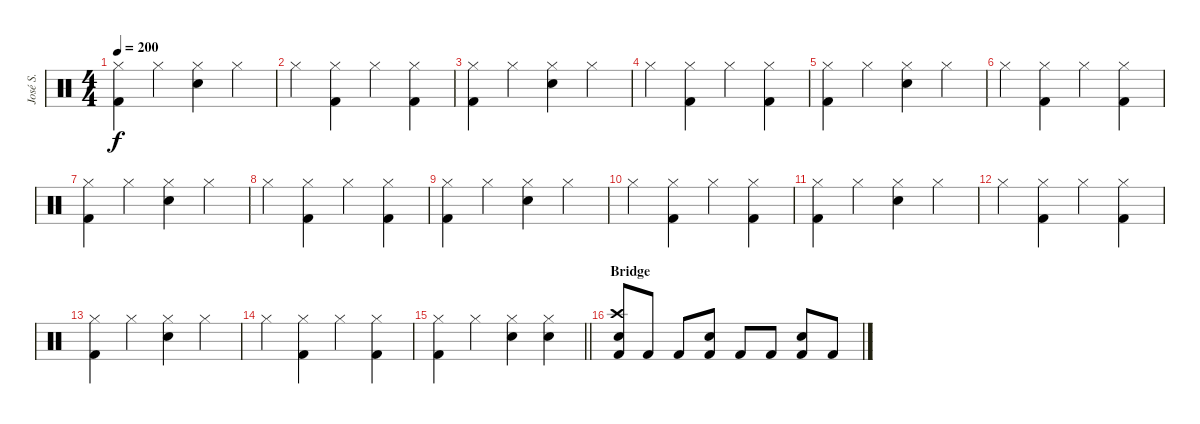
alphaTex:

\track ("José S." "José S.") {instrument percussion}
\staff {score}
\articulation defaults
\ts (4 4)
\tempo 200
\clef neutral
\ks c
("Hi-Hat (closed)" "Kick (hit) 2").4{dy f} "Hi-Hat (closed)".4 ("Hi-Hat (closed)" "Snare (hit) 2").4 "Hi-Hat (closed)".4 |
"Hi-Hat (closed)".4 ("Hi-Hat (closed)" "Kick (hit) 2").4 "Hi-Hat (closed)".4 ("Hi-Hat (closed)" "Kick (hit) 2").4 |
("Hi-Hat (closed)" "Kick (hit) 2").4 "Hi-Hat (closed)".4 ("Hi-Hat (closed)" "Snare (hit) 2").4 "Hi-Hat (closed)".4 |
"Hi-Hat (closed)".4 ("Hi-Hat (closed)" "Kick (hit) 2").4 "Hi-Hat (closed)".4 ("Hi-Hat (closed)" "Kick (hit) 2").4 |
("Hi-Hat (closed)" "Kick (hit) 2").4 "Hi-Hat (closed)".4 ("Hi-Hat (closed)" "Snare (hit) 2").4 "Hi-Hat (closed)".4 |
"Hi-Hat (closed)".4 ("Hi-Hat (closed)" "Kick (hit) 2").4 "Hi-Hat (closed)".4 ("Hi-Hat (closed)" "Kick (hit) 2").4 |
("Hi-Hat (closed)" "Kick (hit) 2").4 "Hi-Hat (closed)".4 ("Hi-Hat (closed)" "Snare (hit) 2").4 "Hi-Hat (closed)".4 |
"Hi-Hat (closed)".4 ("Hi-Hat (closed)" "Kick (hit) 2").4 "Hi-Hat (closed)".4 ("Hi-Hat (closed)" "Kick (hit) 2").4 |
("Hi-Hat (closed)" "Kick (hit) 2").4 "Hi-Hat (closed)".4 ("Hi-Hat (closed)" "Snare (hit) 2").4 "Hi-Hat (closed)".4 |
"Hi-Hat (closed)".4 ("Hi-Hat (closed)" "Kick (hit) 2").4 "Hi-Hat (closed)".4 ("Hi-Hat (closed)" "Kick (hit) 2").4 |
("Hi-Hat (closed)" "Kick (hit) 2").4 "Hi-Hat (closed)".4 ("Hi-Hat (closed)" "Snare (hit) 2").4 "Hi-Hat (closed)".4 |
"Hi-Hat (closed)".4 ("Hi-Hat (closed)" "Kick (hit) 2").4 "Hi-Hat (closed)".4 ("Hi-Hat (closed)" "Kick (hit) 2").4 |
("Hi-Hat (closed)" "Kick (hit) 2").4 "Hi-Hat (closed)".4 ("Hi-Hat (closed)" "Snare (hit) 2").4 "Hi-Hat (closed)".4 |
"Hi-Hat (closed)".4 ("Hi-Hat (closed)" "Kick (hit) 2").4 "Hi-Hat (closed)".4 ("Hi-Hat (closed)" "Kick (hit) 2").4 |
\barLineRight lightlight
("Hi-Hat (closed)" "Kick (hit) 2").4 "Hi-Hat (closed)".4 ("Hi-Hat (closed)" "Snare (hit) 2").4 ("Hi-Hat (closed)" "Snare (hit) 2").4 |
\section ("" "Bridge")
("Crash high (hit)" "Electric Snare (hit)" "Kick (hit) 2").8 "Kick (hit) 2".8 "Kick (hit) 2".8 ("Electric Snare (hit)" "Kick (hit) 2").8 "Kick (hit) 2".8 "Kick (hit) 2".8 ("Electric Snare (hit)" "Kick (hit) 2").8 "Kick (hit) 2".8
